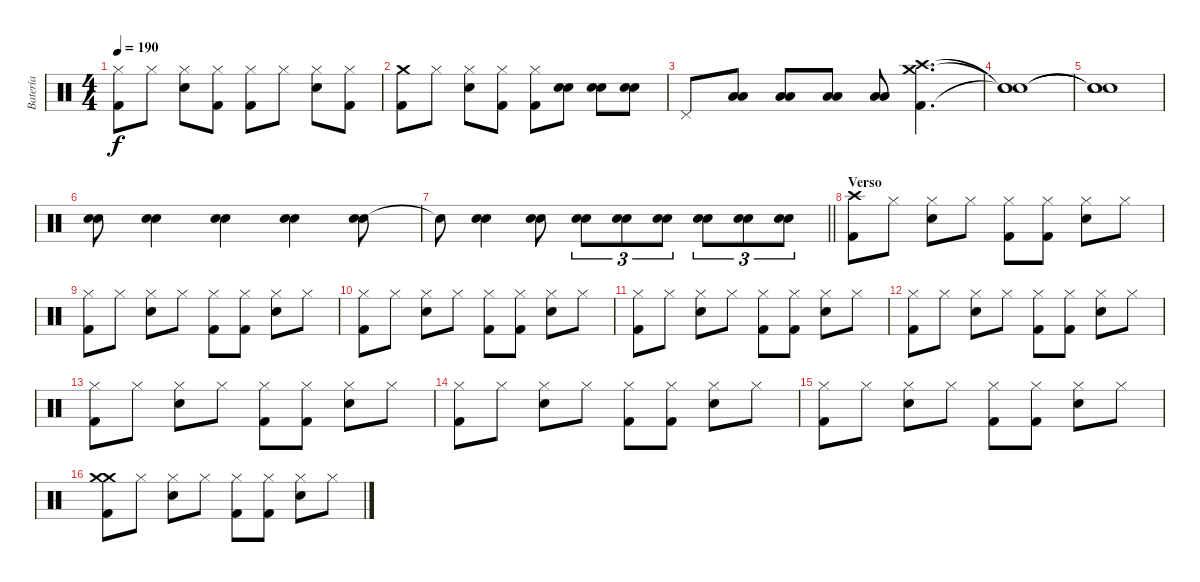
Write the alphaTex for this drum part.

\track ("Batería" "Batería") {instrument percussion}
\staff {score}
\articulation defaults
\ts (4 4)
\tempo 190
\clef neutral
\ks c
("Hi-Hat (closed)" "Kick (hit) 2").8{dy f} "Hi-Hat (closed)".8 ("Hi-Hat (closed)" "Snare (hit) 2").8 ("Hi-Hat (closed)" "Kick (hit) 2").8 ("Hi-Hat (closed)" "Kick (hit) 2").8 "Hi-Hat (closed)".8 ("Hi-Hat (closed)" "Snare (hit) 2").8 ("Hi-Hat (closed)" "Kick (hit) 2").8 |
("Crash medium (hit)" "Kick (hit) 2").8 "Hi-Hat (closed)".8 ("Hi-Hat (closed)" "Snare (hit) 2").8 ("Hi-Hat (closed)" "Kick (hit) 2").8 ("Hi-Hat (closed)" "Kick (hit) 2").8 ("Snare (hit) 2" "Snare (hit) 2").8 ("Snare (hit) 2" "Snare (hit) 2").8 ("Snare (hit) 2" "Snare (hit) 2").8 |
"Pedal Hi-Hat (hit)".8 ("Low Tom (hit)" "Low Tom (hit)").8 ("Low Tom (hit)" "Low Tom (hit)").8 ("Low Tom (hit)" "Low Tom (hit)").8 ("Low Tom (hit)" "Low Tom (hit)").8 ("Crash medium (hit)" "Crash high (hit)" "Kick (hit) 2").4{d} |
("Snare (hit)"{t} "Snare (hit)"{t} "Snare (hit)"{t}).1 |
("Snare (hit)"{t} "Snare (hit)"{t} "Snare (hit)"{t}).1 |
("Snare (hit) 2" "Snare (hit) 2").8 ("Snare (hit) 2" "Snare (hit) 2").4 ("Snare (hit) 2" "Snare (hit) 2").4 ("Snare (hit) 2" "Snare (hit) 2").4 ("Snare (hit) 2" "Snare (hit) 2").8 |
\barLineRight lightlight "Snare (hit)"{t}.8
("Snare (hit) 2" "Snare (hit) 2").4 ("Snare (hit) 2" "Snare (hit) 2").8 ("Snare (hit) 2" "Snare (hit) 2").8{tu (3 2)} ("Snare (hit) 2" "Snare (hit) 2").8{tu (3 2)} ("Snare (hit) 2" "Snare (hit) 2").8{tu (3 2)} ("Snare (hit) 2" "Snare (hit) 2").8{tu (3 2)} ("Snare (hit) 2" "Snare (hit) 2").8{tu (3 2)} ("Snare (hit) 2" "Snare (hit) 2").8{tu (3 2)} |
\section ("" "Verso")
("Crash high (hit)" "Kick (hit) 2").8 "Hi-Hat (closed)".8 ("Hi-Hat (closed)" "Snare (hit) 2").8 "Hi-Hat (closed)".8 ("Hi-Hat (closed)" "Kick (hit) 2").8 ("Hi-Hat (closed)" "Kick (hit) 2").8 ("Hi-Hat (closed)" "Snare (hit) 2").8 "Hi-Hat (closed)".8 |
("Hi-Hat (closed)" "Kick (hit) 2").8 "Hi-Hat (closed)".8 ("Hi-Hat (closed)" "Snare (hit) 2").8 "Hi-Hat (closed)".8 ("Hi-Hat (closed)" "Kick (hit) 2").8 ("Hi-Hat (closed)" "Kick (hit) 2").8 ("Hi-Hat (closed)" "Snare (hit) 2").8 "Hi-Hat (closed)".8 |
("Hi-Hat (closed)" "Kick (hit) 2").8 "Hi-Hat (closed)".8 ("Hi-Hat (closed)" "Snare (hit) 2").8 "Hi-Hat (closed)".8 ("Hi-Hat (closed)" "Kick (hit) 2").8 ("Hi-Hat (closed)" "Kick (hit) 2").8 ("Hi-Hat (closed)" "Snare (hit) 2").8 "Hi-Hat (closed)".8 |
("Hi-Hat (closed)" "Kick (hit) 2").8 "Hi-Hat (closed)".8 ("Hi-Hat (closed)" "Snare (hit) 2").8 "Hi-Hat (closed)".8 ("Hi-Hat (closed)" "Kick (hit) 2").8 ("Hi-Hat (closed)" "Kick (hit) 2").8 ("Hi-Hat (closed)" "Snare (hit) 2").8 "Hi-Hat (closed)".8 |
("Hi-Hat (closed)" "Kick (hit) 2").8 "Hi-Hat (closed)".8 ("Hi-Hat (closed)" "Snare (hit) 2").8 "Hi-Hat (closed)".8 ("Hi-Hat (closed)" "Kick (hit) 2").8 ("Hi-Hat (closed)" "Kick (hit) 2").8 ("Hi-Hat (closed)" "Snare (hit) 2").8 "Hi-Hat (closed)".8 |
("Hi-Hat (closed)" "Kick (hit) 2").8 "Hi-Hat (closed)".8 ("Hi-Hat (closed)" "Snare (hit) 2").8 "Hi-Hat (closed)".8 ("Hi-Hat (closed)" "Kick (hit) 2").8 ("Hi-Hat (closed)" "Kick (hit) 2").8 ("Hi-Hat (closed)" "Snare (hit) 2").8 "Hi-Hat (closed)".8 |
("Hi-Hat (closed)" "Kick (hit) 2").8 "Hi-Hat (closed)".8 ("Hi-Hat (closed)" "Snare (hit) 2").8 "Hi-Hat (closed)".8 ("Hi-Hat (closed)" "Kick (hit) 2").8 ("Hi-Hat (closed)" "Kick (hit) 2").8 ("Hi-Hat (closed)" "Snare (hit) 2").8 "Hi-Hat (closed)".8 |
("Hi-Hat (closed)" "Kick (hit) 2").8 "Hi-Hat (closed)".8 ("Hi-Hat (closed)" "Snare (hit) 2").8 "Hi-Hat (closed)".8 ("Hi-Hat (closed)" "Kick (hit) 2").8 ("Hi-Hat (closed)" "Kick (hit) 2").8 ("Hi-Hat (closed)" "Snare (hit) 2").8 "Hi-Hat (closed)".8 |
("Crash medium (hit)" "Crash medium (hit)" "Kick (hit) 2").8 "Hi-Hat (closed)".8 ("Hi-Hat (closed)" "Snare (hit) 2").8 "Hi-Hat (closed)".8 ("Hi-Hat (closed)" "Kick (hit) 2").8 ("Hi-Hat (closed)" "Kick (hit) 2").8 ("Hi-Hat (closed)" "Snare (hit) 2").8 "Hi-Hat (closed)".8
